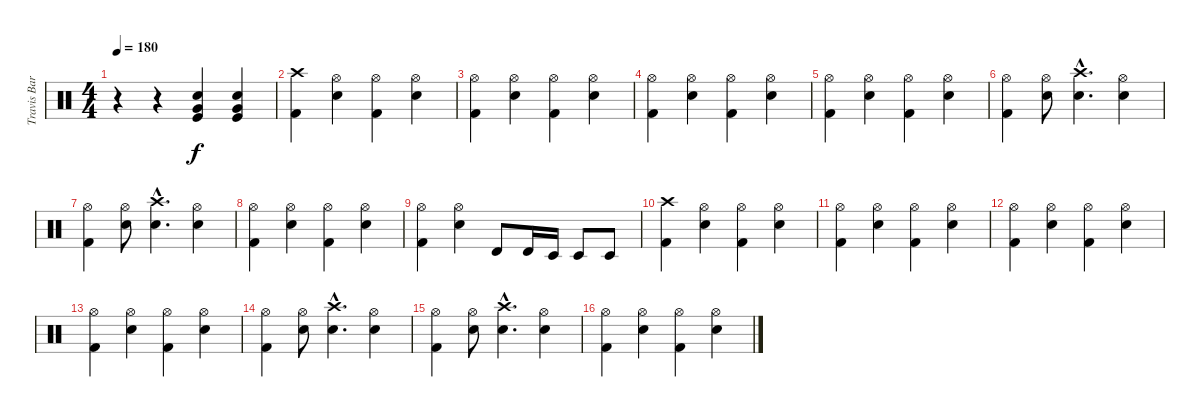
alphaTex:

\track ("Travis Barker" "Travis Bar") {instrument percussion}
\staff {score}
\articulation defaults
\ts (4 4)
\tempo 180
\clef neutral
\ks c
r.4{dy f} r.4 ("Electric Snare (hit)" "Very Low Tom (hit)" "Kick (hit)").4 ("Electric Snare (hit)" "Very Low Tom (hit)" "Kick (hit)").4 |
("Crash high (hit)" "Kick (hit) 2").4 ("Hi-Hat (open)" "Electric Snare (hit)").4 ("Hi-Hat (open)" "Kick (hit) 2").4 ("Hi-Hat (open)" "Electric Snare (hit)").4 |
("Hi-Hat (open)" "Kick (hit) 2").4 ("Hi-Hat (open)" "Electric Snare (hit)").4 ("Hi-Hat (open)" "Kick (hit) 2").4 ("Hi-Hat (open)" "Electric Snare (hit)").4 |
("Hi-Hat (open)" "Kick (hit) 2").4 ("Hi-Hat (open)" "Electric Snare (hit)").4 ("Hi-Hat (open)" "Kick (hit) 2").4 ("Hi-Hat (open)" "Electric Snare (hit)").4 |
("Hi-Hat (open)" "Kick (hit) 2").4 ("Hi-Hat (open)" "Electric Snare (hit)").4 ("Hi-Hat (open)" "Kick (hit) 2").4 ("Hi-Hat (open)" "Electric Snare (hit)").4 |
("Hi-Hat (open)" "Kick (hit) 2").4 ("Hi-Hat (open)" "Electric Snare (hit)").8 ("Crash high (hit)"{hac} "Electric Snare (hit)"{hac}).4{d} ("Hi-Hat (open)" "Electric Snare (hit)").4 |
("Hi-Hat (open)" "Kick (hit) 2").4 ("Hi-Hat (open)" "Electric Snare (hit)").8 ("Crash high (hit)"{hac} "Electric Snare (hit)"{hac}).4{d} ("Hi-Hat (open)" "Electric Snare (hit)").4 |
("Hi-Hat (open)" "Kick (hit) 2").4 ("Hi-Hat (open)" "Electric Snare (hit)").4 ("Hi-Hat (open)" "Kick (hit) 2").4 ("Hi-Hat (open)" "Electric Snare (hit)").4 |
("Hi-Hat (open)" "Kick (hit) 2").4 ("Hi-Hat (open)" "Electric Snare (hit)").4 "Timbale high (hit)".8 "Timbale high (hit)".16 "Timbale low (hit)".16 "Timbale low (hit)".8 "Timbale low (hit)".8 |
("Crash high (hit)" "Kick (hit) 2").4 ("Hi-Hat (open)" "Electric Snare (hit)").4 ("Hi-Hat (open)" "Kick (hit) 2").4 ("Hi-Hat (open)" "Electric Snare (hit)").4 |
("Hi-Hat (open)" "Kick (hit) 2").4 ("Hi-Hat (open)" "Electric Snare (hit)").4 ("Hi-Hat (open)" "Kick (hit) 2").4 ("Hi-Hat (open)" "Electric Snare (hit)").4 |
("Hi-Hat (open)" "Kick (hit) 2").4 ("Hi-Hat (open)" "Electric Snare (hit)").4 ("Hi-Hat (open)" "Kick (hit) 2").4 ("Hi-Hat (open)" "Electric Snare (hit)").4 |
("Hi-Hat (open)" "Kick (hit) 2").4 ("Hi-Hat (open)" "Electric Snare (hit)").4 ("Hi-Hat (open)" "Kick (hit) 2").4 ("Hi-Hat (open)" "Electric Snare (hit)").4 |
("Hi-Hat (open)" "Kick (hit) 2").4 ("Hi-Hat (open)" "Electric Snare (hit)").8 ("Crash high (hit)"{hac} "Electric Snare (hit)"{hac}).4{d} ("Hi-Hat (open)" "Electric Snare (hit)").4 |
("Hi-Hat (open)" "Kick (hit) 2").4 ("Hi-Hat (open)" "Electric Snare (hit)").8 ("Crash high (hit)"{hac} "Electric Snare (hit)"{hac}).4{d} ("Hi-Hat (open)" "Electric Snare (hit)").4 |
("Hi-Hat (open)" "Kick (hit) 2").4 ("Hi-Hat (open)" "Electric Snare (hit)").4 ("Hi-Hat (open)" "Kick (hit) 2").4 ("Hi-Hat (open)" "Electric Snare (hit)").4
